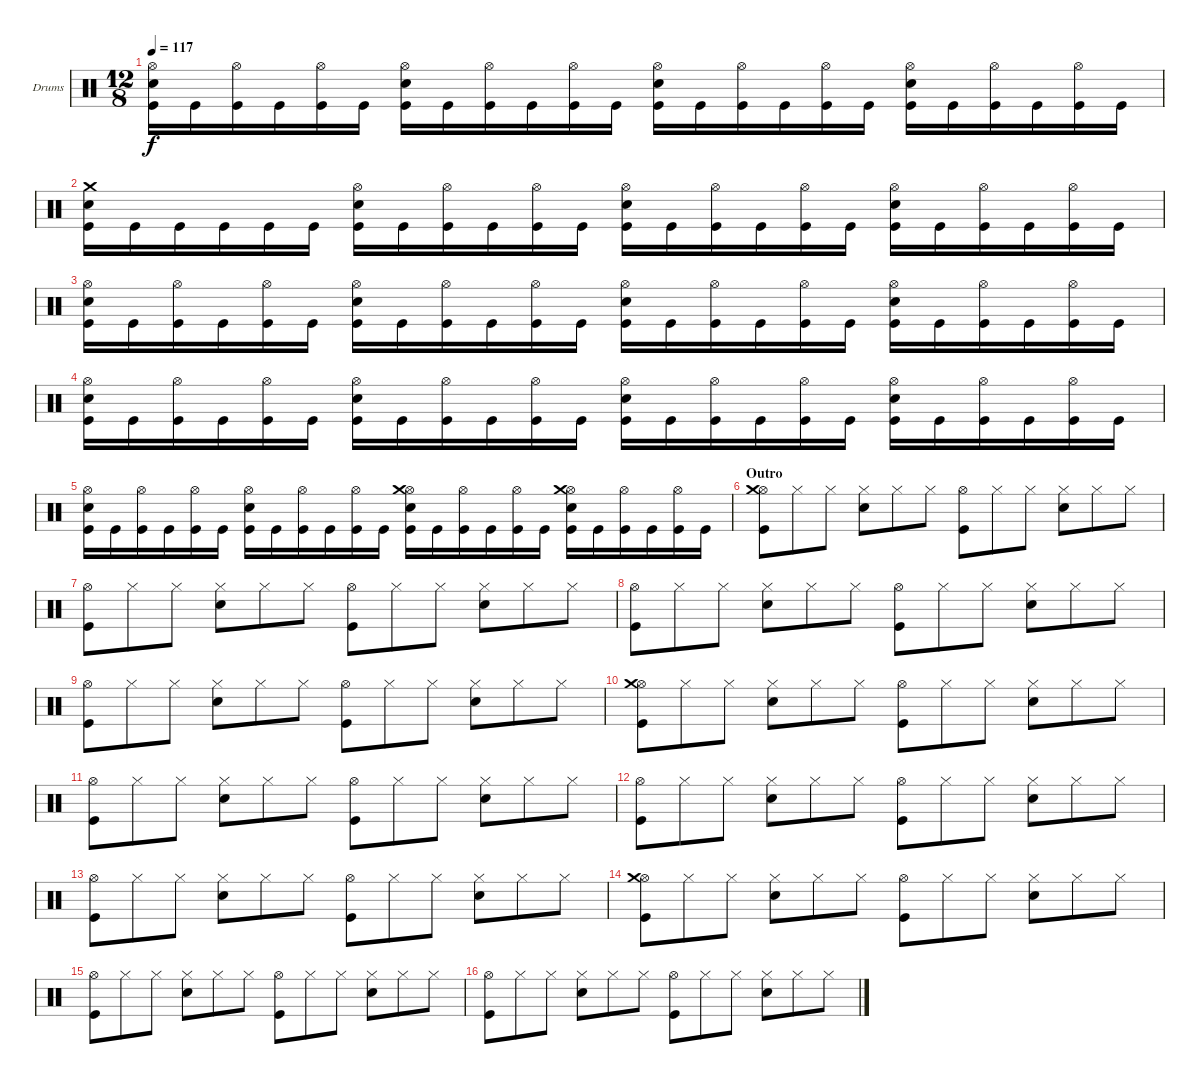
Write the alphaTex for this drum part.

\defaultSystemsLayout 4
\bracketExtendMode groupsimilarinstruments
\firstSystemTrackNameOrientation horizontal
\otherSystemsTrackNameOrientation horizontal
\track ("Drumkit" "Drums") {instrument percussion}
\staff {score}
\articulation defaults
\ts (12 8)
\tempo 117
\clef neutral
\scale
0.333333
\ks c
("Kick (hit)" "Snare (hit) 2" "Hi-Hat (open)").16{dy f} "Kick (hit)".16 ("Kick (hit)" "Hi-Hat (open)").16 "Kick (hit)".16 ("Kick (hit)" "Hi-Hat (open)").16 "Kick (hit)".16 ("Kick (hit)" "Snare (hit) 2" "Hi-Hat (open)").16 "Kick (hit)".16 ("Kick (hit)" "Hi-Hat (open)").16 "Kick (hit)".16 ("Kick (hit)" "Hi-Hat (open)").16 "Kick (hit)".16 ("Kick (hit)" "Snare (hit) 2" "Hi-Hat (open)").16 "Kick (hit)".16 ("Kick (hit)" "Hi-Hat (open)").16 "Kick (hit)".16 ("Kick (hit)" "Hi-Hat (open)").16 "Kick (hit)".16 ("Kick (hit)" "Snare (hit) 2" "Hi-Hat (open)").16 "Kick (hit)".16 ("Kick (hit)" "Hi-Hat (open)").16 "Kick (hit)".16 ("Kick (hit)" "Hi-Hat (open)").16 "Kick (hit)".16 |
\scale
0.333333 ("Kick (hit)" "Snare (hit) 2" "Crash medium (hit)").16 "Kick (hit)".16 "Kick (hit)".16 "Kick (hit)".16 "Kick (hit)".16 "Kick (hit)".16 ("Kick (hit)" "Snare (hit) 2" "Hi-Hat (open)").16 "Kick (hit)".16 ("Kick (hit)" "Hi-Hat (open)").16 "Kick (hit)".16 ("Kick (hit)" "Hi-Hat (open)").16 "Kick (hit)".16 ("Kick (hit)" "Snare (hit) 2" "Hi-Hat (open)").16 "Kick (hit)".16 ("Kick (hit)" "Hi-Hat (open)").16 "Kick (hit)".16 ("Kick (hit)" "Hi-Hat (open)").16 "Kick (hit)".16 ("Kick (hit)" "Snare (hit) 2" "Hi-Hat (open)").16 "Kick (hit)".16 ("Kick (hit)" "Hi-Hat (open)").16 "Kick (hit)".16 ("Kick (hit)" "Hi-Hat (open)").16 "Kick (hit)".16 |
\scale
0.333333 ("Kick (hit)" "Snare (hit) 2" "Hi-Hat (open)").16 "Kick (hit)".16 ("Kick (hit)" "Hi-Hat (open)").16 "Kick (hit)".16 ("Kick (hit)" "Hi-Hat (open)").16 "Kick (hit)".16 ("Kick (hit)" "Snare (hit) 2" "Hi-Hat (open)").16 "Kick (hit)".16 ("Kick (hit)" "Hi-Hat (open)").16 "Kick (hit)".16 ("Kick (hit)" "Hi-Hat (open)").16 "Kick (hit)".16 ("Kick (hit)" "Snare (hit) 2" "Hi-Hat (open)").16 "Kick (hit)".16 ("Kick (hit)" "Hi-Hat (open)").16 "Kick (hit)".16 ("Kick (hit)" "Hi-Hat (open)").16 "Kick (hit)".16 ("Kick (hit)" "Snare (hit) 2" "Hi-Hat (open)").16 "Kick (hit)".16 ("Kick (hit)" "Hi-Hat (open)").16 "Kick (hit)".16 ("Kick (hit)" "Hi-Hat (open)").16 "Kick (hit)".16 |
\scale
0.333333 ("Kick (hit)" "Snare (hit) 2" "Hi-Hat (open)").16 "Kick (hit)".16 ("Kick (hit)" "Hi-Hat (open)").16 "Kick (hit)".16 ("Kick (hit)" "Hi-Hat (open)").16 "Kick (hit)".16 ("Kick (hit)" "Snare (hit) 2" "Hi-Hat (open)").16 "Kick (hit)".16 ("Kick (hit)" "Hi-Hat (open)").16 "Kick (hit)".16 ("Kick (hit)" "Hi-Hat (open)").16 "Kick (hit)".16 ("Kick (hit)" "Snare (hit) 2" "Hi-Hat (open)").16 "Kick (hit)".16 ("Kick (hit)" "Hi-Hat (open)").16 "Kick (hit)".16 ("Kick (hit)" "Hi-Hat (open)").16 "Kick (hit)".16 ("Kick (hit)" "Snare (hit) 2" "Hi-Hat (open)").16 "Kick (hit)".16 ("Kick (hit)" "Hi-Hat (open)").16 "Kick (hit)".16 ("Kick (hit)" "Hi-Hat (open)").16 "Kick (hit)".16 |
\scale
0.333333 ("Kick (hit)" "Snare (hit) 2" "Hi-Hat (open)").16 "Kick (hit)".16 ("Kick (hit)" "Hi-Hat (open)").16 "Kick (hit)".16 ("Kick (hit)" "Hi-Hat (open)").16 "Kick (hit)".16 ("Kick (hit)" "Snare (hit) 2" "Hi-Hat (open)").16 "Kick (hit)".16 ("Kick (hit)" "Hi-Hat (open)").16 "Kick (hit)".16 ("Kick (hit)" "Hi-Hat (open)").16 "Kick (hit)".16 ("Kick (hit)" "Snare (hit) 2" "Hi-Hat (open)" "Crash medium (hit)").16 "Kick (hit)".16 ("Kick (hit)" "Hi-Hat (open)").16 "Kick (hit)".16 ("Kick (hit)" "Hi-Hat (open)").16 "Kick (hit)".16 ("Kick (hit)" "Snare (hit) 2" "Hi-Hat (open)" "Crash medium (hit)").16 "Kick (hit)".16 ("Kick (hit)" "Hi-Hat (open)").16 "Kick (hit)".16 ("Kick (hit)" "Hi-Hat (open)").16 "Kick (hit)".16 |
\section ("" "Outro")
("Kick (hit)" "Hi-Hat (open)" "Crash medium (hit)").8 "Hi-Hat (closed)".8 "Hi-Hat (closed)".8 ("Snare (hit) 2" "Hi-Hat (closed)").8 "Hi-Hat (closed)".8 "Hi-Hat (closed)".8 ("Kick (hit)" "Hi-Hat (open)").8 "Hi-Hat (closed)".8 "Hi-Hat (closed)".8 ("Snare (hit) 2" "Hi-Hat (closed)").8 "Hi-Hat (closed)".8 "Hi-Hat (closed)".8 |
("Kick (hit)" "Hi-Hat (open)").8 "Hi-Hat (closed)".8 "Hi-Hat (closed)".8 ("Snare (hit) 2" "Hi-Hat (closed)").8 "Hi-Hat (closed)".8 "Hi-Hat (closed)".8 ("Kick (hit)" "Hi-Hat (open)").8 "Hi-Hat (closed)".8 "Hi-Hat (closed)".8 ("Snare (hit) 2" "Hi-Hat (closed)").8 "Hi-Hat (closed)".8 "Hi-Hat (closed)".8 |
("Kick (hit)" "Hi-Hat (open)").8 "Hi-Hat (closed)".8 "Hi-Hat (closed)".8 ("Snare (hit) 2" "Hi-Hat (closed)").8 "Hi-Hat (closed)".8 "Hi-Hat (closed)".8 ("Kick (hit)" "Hi-Hat (open)").8 "Hi-Hat (closed)".8 "Hi-Hat (closed)".8 ("Snare (hit) 2" "Hi-Hat (closed)").8 "Hi-Hat (closed)".8 "Hi-Hat (closed)".8 |
("Kick (hit)" "Hi-Hat (open)").8 "Hi-Hat (closed)".8 "Hi-Hat (closed)".8 ("Snare (hit) 2" "Hi-Hat (closed)").8 "Hi-Hat (closed)".8 "Hi-Hat (closed)".8 ("Kick (hit)" "Hi-Hat (open)").8 "Hi-Hat (closed)".8 "Hi-Hat (closed)".8 ("Snare (hit) 2" "Hi-Hat (closed)").8 "Hi-Hat (closed)".8 "Hi-Hat (closed)".8 |
("Kick (hit)" "Hi-Hat (open)" "Crash medium (hit)").8 "Hi-Hat (closed)".8 "Hi-Hat (closed)".8 ("Snare (hit) 2" "Hi-Hat (closed)").8 "Hi-Hat (closed)".8 "Hi-Hat (closed)".8 ("Kick (hit)" "Hi-Hat (open)").8 "Hi-Hat (closed)".8 "Hi-Hat (closed)".8 ("Snare (hit) 2" "Hi-Hat (closed)").8 "Hi-Hat (closed)".8 "Hi-Hat (closed)".8 |
("Kick (hit)" "Hi-Hat (open)").8 "Hi-Hat (closed)".8 "Hi-Hat (closed)".8 ("Snare (hit) 2" "Hi-Hat (closed)").8 "Hi-Hat (closed)".8 "Hi-Hat (closed)".8 ("Kick (hit)" "Hi-Hat (open)").8 "Hi-Hat (closed)".8 "Hi-Hat (closed)".8 ("Snare (hit) 2" "Hi-Hat (closed)").8 "Hi-Hat (closed)".8 "Hi-Hat (closed)".8 |
("Kick (hit)" "Hi-Hat (open)").8 "Hi-Hat (closed)".8 "Hi-Hat (closed)".8 ("Snare (hit) 2" "Hi-Hat (closed)").8 "Hi-Hat (closed)".8 "Hi-Hat (closed)".8 ("Kick (hit)" "Hi-Hat (open)").8 "Hi-Hat (closed)".8 "Hi-Hat (closed)".8 ("Snare (hit) 2" "Hi-Hat (closed)").8 "Hi-Hat (closed)".8 "Hi-Hat (closed)".8 |
("Kick (hit)" "Hi-Hat (open)").8 "Hi-Hat (closed)".8 "Hi-Hat (closed)".8 ("Snare (hit) 2" "Hi-Hat (closed)").8 "Hi-Hat (closed)".8 "Hi-Hat (closed)".8 ("Kick (hit)" "Hi-Hat (open)").8 "Hi-Hat (closed)".8 "Hi-Hat (closed)".8 ("Snare (hit) 2" "Hi-Hat (closed)").8 "Hi-Hat (closed)".8 "Hi-Hat (closed)".8 |
("Kick (hit)" "Hi-Hat (open)" "Crash medium (hit)").8 "Hi-Hat (closed)".8 "Hi-Hat (closed)".8 ("Snare (hit) 2" "Hi-Hat (closed)").8 "Hi-Hat (closed)".8 "Hi-Hat (closed)".8 ("Kick (hit)" "Hi-Hat (open)").8 "Hi-Hat (closed)".8 "Hi-Hat (closed)".8 ("Snare (hit) 2" "Hi-Hat (closed)").8 "Hi-Hat (closed)".8 "Hi-Hat (closed)".8 |
("Kick (hit)" "Hi-Hat (open)").8 "Hi-Hat (closed)".8 "Hi-Hat (closed)".8 ("Snare (hit) 2" "Hi-Hat (closed)").8 "Hi-Hat (closed)".8 "Hi-Hat (closed)".8 ("Kick (hit)" "Hi-Hat (open)").8 "Hi-Hat (closed)".8 "Hi-Hat (closed)".8 ("Snare (hit) 2" "Hi-Hat (closed)").8 "Hi-Hat (closed)".8 "Hi-Hat (closed)".8 |
("Kick (hit)" "Hi-Hat (open)").8 "Hi-Hat (closed)".8 "Hi-Hat (closed)".8 ("Snare (hit) 2" "Hi-Hat (closed)").8 "Hi-Hat (closed)".8 "Hi-Hat (closed)".8 ("Kick (hit)" "Hi-Hat (open)").8 "Hi-Hat (closed)".8 "Hi-Hat (closed)".8 ("Snare (hit) 2" "Hi-Hat (closed)").8 "Hi-Hat (closed)".8 "Hi-Hat (closed)".8
